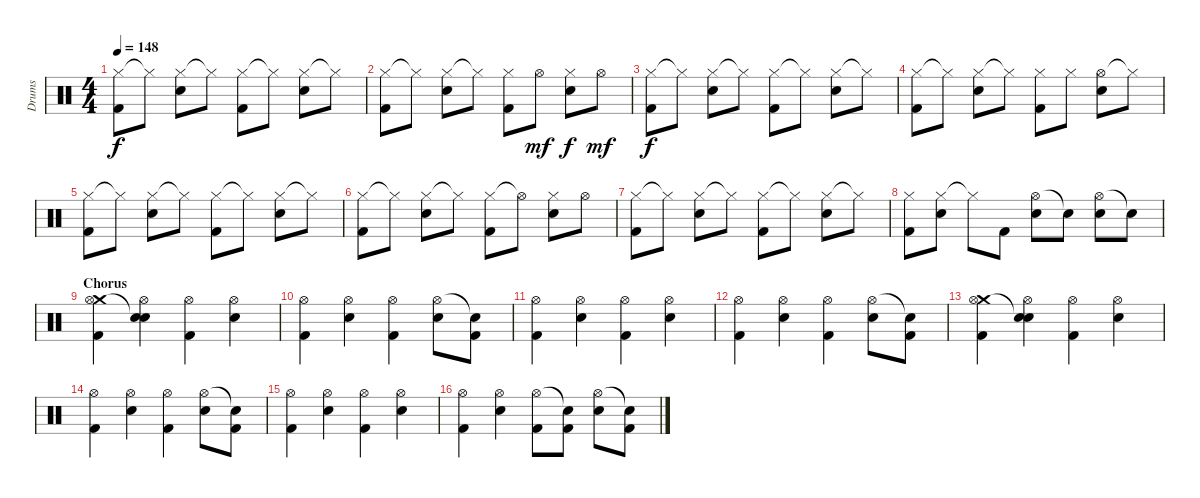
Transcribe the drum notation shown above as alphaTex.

\track ("Drums" "Drums") {instrument percussion}
\staff {score}
\articulation defaults
\ts (4 4)
\tempo 148
\clef neutral
\ks c
("Hi-Hat (closed)" "Kick (hit) 2").8{dy f} "Hi-Hat (closed)"{t}.8 ("Hi-Hat (closed)" "Electric Snare (hit)").8 "Hi-Hat (closed)"{t}.8 ("Hi-Hat (closed)" "Kick (hit) 2").8 "Hi-Hat (closed)"{t}.8 ("Hi-Hat (closed)" "Electric Snare (hit)").8 "Hi-Hat (closed)"{t}.8 |
("Hi-Hat (closed)" "Kick (hit) 2").8 "Hi-Hat (closed)"{t}.8 ("Hi-Hat (closed)" "Electric Snare (hit)").8 "Hi-Hat (closed)"{t}.8 ("Hi-Hat (closed)" "Kick (hit) 2").8 "Hi-Hat (open)".8{dy mf} ("Hi-Hat (closed)" "Electric Snare (hit)").8{dy f} "Hi-Hat (open)".8{dy mf} |
("Hi-Hat (closed)" "Kick (hit) 2").8{dy f} "Hi-Hat (closed)"{t}.8 ("Hi-Hat (closed)" "Electric Snare (hit)").8 "Hi-Hat (closed)"{t}.8 ("Hi-Hat (closed)" "Kick (hit) 2").8 "Hi-Hat (closed)"{t}.8 ("Hi-Hat (closed)" "Electric Snare (hit)").8 "Hi-Hat (closed)"{t}.8 |
("Hi-Hat (closed)" "Kick (hit) 2").8 "Hi-Hat (closed)"{t}.8 ("Hi-Hat (closed)" "Electric Snare (hit)").8 "Hi-Hat (closed)"{t}.8 ("Hi-Hat (closed)" "Kick (hit) 2").8 "Hi-Hat (closed)".8 ("Hi-Hat (open)" "Electric Snare (hit)").8 "Hi-Hat (closed)"{t}.8 |
("Hi-Hat (closed)" "Kick (hit) 2").8 "Hi-Hat (closed)"{t}.8 ("Hi-Hat (closed)" "Electric Snare (hit)").8 "Hi-Hat (closed)"{t}.8 ("Hi-Hat (closed)" "Kick (hit) 2").8 "Hi-Hat (closed)"{t}.8 ("Hi-Hat (closed)" "Electric Snare (hit)").8 "Hi-Hat (closed)"{t}.8 |
("Hi-Hat (closed)" "Kick (hit) 2").8 "Hi-Hat (closed)"{t}.8 ("Hi-Hat (closed)" "Electric Snare (hit)").8 "Hi-Hat (closed)"{t}.8 ("Hi-Hat (closed)" "Kick (hit) 2").8 "Hi-Hat (open)"{t}.8 ("Hi-Hat (closed)" "Electric Snare (hit)").8 "Hi-Hat (open)".8 |
("Hi-Hat (closed)" "Kick (hit) 2").8 "Hi-Hat (closed)"{t}.8 ("Hi-Hat (closed)" "Electric Snare (hit)").8 "Hi-Hat (closed)"{t}.8 ("Hi-Hat (closed)" "Kick (hit) 2").8 "Hi-Hat (closed)"{t}.8 ("Hi-Hat (closed)" "Electric Snare (hit)").8 "Hi-Hat (closed)"{t}.8 |
("Hi-Hat (closed)" "Kick (hit) 2").8 ("Hi-Hat (closed)" "Electric Snare (hit)").8 "Hi-Hat (closed)"{t}.8 "Kick (hit) 2".8 ("Hi-Hat (open)" "Electric Snare (hit)").8 "Snare (hit)"{t}.8 ("Hi-Hat (open)" "Electric Snare (hit)").8 "Snare (hit)"{t}.8 |
\section ("" "Chorus")
("Crash medium (hit)" "Hi-Hat (open)" "Kick (hit) 2").4 ("Snare (hit)"{t} "Hi-Hat (open)" "Electric Snare (hit)").4 ("Hi-Hat (open)" "Kick (hit) 2").4 ("Hi-Hat (open)" "Electric Snare (hit)").4 |
("Hi-Hat (open)" "Kick (hit) 2").4 ("Hi-Hat (open)" "Electric Snare (hit)").4 ("Hi-Hat (open)" "Kick (hit) 2").4 ("Hi-Hat (open)" "Electric Snare (hit)").8 ("Snare (hit)"{t} "Kick (hit) 2").8 |
("Hi-Hat (open)" "Kick (hit) 2").4 ("Hi-Hat (open)" "Electric Snare (hit)").4 ("Hi-Hat (open)" "Kick (hit) 2").4 ("Hi-Hat (open)" "Electric Snare (hit)").4 |
("Hi-Hat (open)" "Kick (hit) 2").4 ("Hi-Hat (open)" "Electric Snare (hit)").4 ("Hi-Hat (open)" "Kick (hit) 2").4 ("Hi-Hat (open)" "Electric Snare (hit)").8 ("Snare (hit)"{t} "Kick (hit) 2").8 |
("Crash medium (hit)" "Hi-Hat (open)" "Kick (hit) 2").4 ("Snare (hit)"{t} "Hi-Hat (open)" "Electric Snare (hit)").4 ("Hi-Hat (open)" "Kick (hit) 2").4 ("Hi-Hat (open)" "Electric Snare (hit)").4 |
("Hi-Hat (open)" "Kick (hit) 2").4 ("Hi-Hat (open)" "Electric Snare (hit)").4 ("Hi-Hat (open)" "Kick (hit) 2").4 ("Hi-Hat (open)" "Electric Snare (hit)").8 ("Snare (hit)"{t} "Kick (hit) 2").8 |
("Hi-Hat (open)" "Kick (hit) 2").4 ("Hi-Hat (open)" "Electric Snare (hit)").4 ("Hi-Hat (open)" "Kick (hit) 2").4 ("Hi-Hat (open)" "Electric Snare (hit)").4 |
("Hi-Hat (open)" "Kick (hit) 2").4 ("Hi-Hat (open)" "Electric Snare (hit)").4 ("Hi-Hat (open)" "Kick (hit) 2").8 ("Snare (hit)"{t} "Kick (hit) 2").8 ("Hi-Hat (open)" "Electric Snare (hit)").8 ("Snare (hit)"{t} "Kick (hit) 2").8
